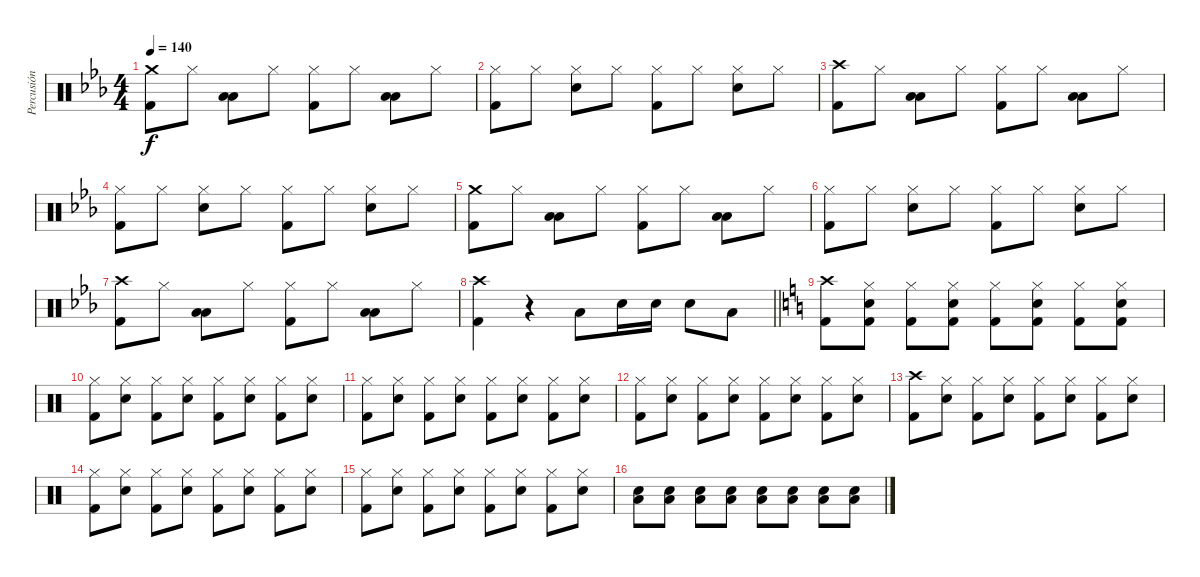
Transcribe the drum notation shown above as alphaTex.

\track ("Percusión" "Percusión") {instrument percussion}
\staff {score}
\articulation defaults
\ts (4 4)
\tempo 140
\clef neutral
\ks eb
("Crash medium (hit)" "Kick (hit) 2").8{dy f} "Hi-Hat (closed)".8 ("Low Floor Tom (hit)" "Low Tom (hit)").8 "Hi-Hat (closed)".8 ("Hi-Hat (closed)" "Kick (hit) 2").8 "Hi-Hat (closed)".8 ("Low Floor Tom (hit)" "Low Tom (hit)").8 "Hi-Hat (closed)".8 |
("Hi-Hat (closed)" "Kick (hit) 2").8 "Hi-Hat (closed)".8 ("Hi-Hat (closed)" "Snare (hit) 2").8 "Hi-Hat (closed)".8 ("Hi-Hat (closed)" "Kick (hit) 2").8 "Hi-Hat (closed)".8 ("Hi-Hat (closed)" "Snare (hit) 2").8 "Hi-Hat (closed)".8 |
("Crash high (hit)" "Kick (hit) 2").8 "Hi-Hat (closed)".8 ("Low Floor Tom (hit)" "Low Tom (hit)").8 "Hi-Hat (closed)".8 ("Hi-Hat (closed)" "Kick (hit) 2").8 "Hi-Hat (closed)".8 ("Low Floor Tom (hit)" "Low Tom (hit)").8 "Hi-Hat (closed)".8 |
("Hi-Hat (closed)" "Kick (hit) 2").8 "Hi-Hat (closed)".8 ("Hi-Hat (closed)" "Snare (hit) 2").8 "Hi-Hat (closed)".8 ("Hi-Hat (closed)" "Kick (hit) 2").8 "Hi-Hat (closed)".8 ("Hi-Hat (closed)" "Snare (hit) 2").8 "Hi-Hat (closed)".8 |
("Crash medium (hit)" "Kick (hit) 2").8 "Hi-Hat (closed)".8 ("Low Floor Tom (hit)" "Low Tom (hit)").8 "Hi-Hat (closed)".8 ("Hi-Hat (closed)" "Kick (hit) 2").8 "Hi-Hat (closed)".8 ("Low Floor Tom (hit)" "Low Tom (hit)").8 "Hi-Hat (closed)".8 |
("Hi-Hat (closed)" "Kick (hit) 2").8 "Hi-Hat (closed)".8 ("Hi-Hat (closed)" "Snare (hit) 2").8 "Hi-Hat (closed)".8 ("Hi-Hat (closed)" "Kick (hit) 2").8 "Hi-Hat (closed)".8 ("Hi-Hat (closed)" "Snare (hit) 2").8 "Hi-Hat (closed)".8 |
("Crash high (hit)" "Kick (hit) 2").8 "Hi-Hat (closed)".8 ("Low Floor Tom (hit)" "Low Tom (hit)").8 "Hi-Hat (closed)".8 ("Hi-Hat (closed)" "Kick (hit) 2").8 "Hi-Hat (closed)".8 ("Low Floor Tom (hit)" "Low Tom (hit)").8 "Hi-Hat (closed)".8 |
\barLineRight lightlight
("Crash high (hit)" "Kick (hit) 2").4 r.4 "Low Tom (hit)".8 "Snare (hit) 2".16 "Snare (hit) 2".16 "Snare (hit) 2".8 "Low Tom (hit)".8 |
\ks c
("Crash high (hit)" "Kick (hit) 2").8 ("Hi-Hat (closed)" "Snare (hit) 2" "Kick (hit) 2").8 ("Hi-Hat (closed)" "Kick (hit) 2").8 ("Hi-Hat (closed)" "Snare (hit) 2" "Kick (hit) 2").8 ("Hi-Hat (closed)" "Kick (hit) 2").8 ("Hi-Hat (closed)" "Snare (hit) 2" "Kick (hit) 2").8 ("Hi-Hat (closed)" "Kick (hit) 2").8 ("Hi-Hat (closed)" "Snare (hit) 2" "Kick (hit) 2").8 |
("Hi-Hat (closed)" "Kick (hit) 2").8 ("Hi-Hat (closed)" "Snare (hit) 2").8 ("Hi-Hat (closed)" "Kick (hit) 2").8 ("Hi-Hat (closed)" "Snare (hit) 2").8 ("Hi-Hat (closed)" "Kick (hit) 2").8 ("Hi-Hat (closed)" "Snare (hit) 2").8 ("Hi-Hat (closed)" "Kick (hit) 2").8 ("Hi-Hat (closed)" "Snare (hit) 2").8 |
("Hi-Hat (closed)" "Kick (hit) 2").8 ("Hi-Hat (closed)" "Snare (hit) 2").8 ("Hi-Hat (closed)" "Kick (hit) 2").8 ("Hi-Hat (closed)" "Snare (hit) 2").8 ("Hi-Hat (closed)" "Kick (hit) 2").8 ("Hi-Hat (closed)" "Snare (hit) 2").8 ("Hi-Hat (closed)" "Kick (hit) 2").8 ("Hi-Hat (closed)" "Snare (hit) 2").8 |
("Hi-Hat (closed)" "Kick (hit) 2").8 ("Hi-Hat (closed)" "Snare (hit) 2").8 ("Hi-Hat (closed)" "Kick (hit) 2").8 ("Hi-Hat (closed)" "Snare (hit) 2").8 ("Hi-Hat (closed)" "Kick (hit) 2").8 ("Hi-Hat (closed)" "Snare (hit) 2").8 ("Hi-Hat (closed)" "Kick (hit) 2").8 ("Hi-Hat (closed)" "Snare (hit) 2").8 |
("Crash high (hit)" "Kick (hit) 2").8 ("Hi-Hat (closed)" "Snare (hit) 2").8 ("Hi-Hat (closed)" "Kick (hit) 2").8 ("Hi-Hat (closed)" "Snare (hit) 2").8 ("Hi-Hat (closed)" "Kick (hit) 2").8 ("Hi-Hat (closed)" "Snare (hit) 2").8 ("Hi-Hat (closed)" "Kick (hit) 2").8 ("Hi-Hat (closed)" "Snare (hit) 2").8 |
("Hi-Hat (closed)" "Kick (hit) 2").8 ("Hi-Hat (closed)" "Snare (hit) 2").8 ("Hi-Hat (closed)" "Kick (hit) 2").8 ("Hi-Hat (closed)" "Snare (hit) 2").8 ("Hi-Hat (closed)" "Kick (hit) 2").8 ("Hi-Hat (closed)" "Snare (hit) 2").8 ("Hi-Hat (closed)" "Kick (hit) 2").8 ("Hi-Hat (closed)" "Snare (hit) 2").8 |
("Hi-Hat (closed)" "Kick (hit) 2").8 ("Hi-Hat (closed)" "Snare (hit) 2").8 ("Hi-Hat (closed)" "Kick (hit) 2").8 ("Hi-Hat (closed)" "Snare (hit) 2").8 ("Hi-Hat (closed)" "Kick (hit) 2").8 ("Hi-Hat (closed)" "Snare (hit) 2").8 ("Hi-Hat (closed)" "Kick (hit) 2").8 ("Hi-Hat (closed)" "Snare (hit) 2").8 |
("Low Floor Tom (hit)" "Snare (hit) 2").8 ("Low Floor Tom (hit)" "Snare (hit) 2").8 ("Low Floor Tom (hit)" "Snare (hit) 2").8 ("Low Floor Tom (hit)" "Snare (hit) 2").8 ("Low Floor Tom (hit)" "Snare (hit) 2").8 ("Low Floor Tom (hit)" "Snare (hit) 2").8 ("Low Floor Tom (hit)" "Snare (hit) 2").8 ("Low Floor Tom (hit)" "Snare (hit) 2").8
